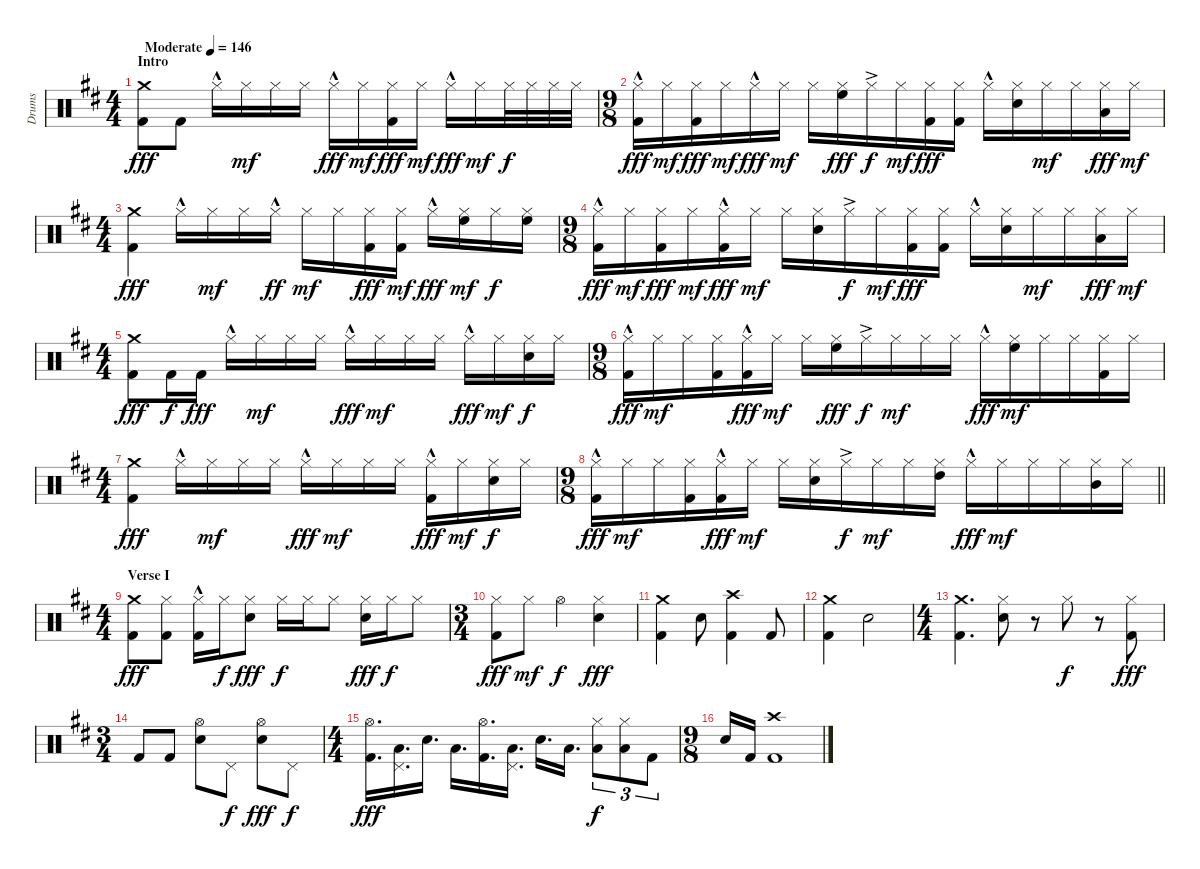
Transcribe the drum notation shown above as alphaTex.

\track ("Drums" "Drums") {instrument percussion}
\staff {score}
\articulation defaults
\ts (4 4)
\section ("" "Intro")
\tempo (146 "Moderate")
\clef neutral
\ks d
("Crash medium (hit)" "Kick (hit) 2").8{dy fff} "Kick (hit) 2".8 "Hi-Hat (closed)"{hac}.16 "Hi-Hat (closed)".16{dy mf} "Hi-Hat (closed)".16 "Hi-Hat (closed)".16 "Hi-Hat (closed)"{hac}.16{dy fff} "Hi-Hat (closed)".16{dy mf} ("Hi-Hat (closed)" "Kick (hit) 2").16{dy fff} "Hi-Hat (closed)".16{dy mf} "Hi-Hat (closed)"{hac}.16{dy fff} "Hi-Hat (closed)".16{dy mf} "Hi-Hat (closed)".32{dy f} "Hi-Hat (closed)".32 "Hi-Hat (closed)".32 "Hi-Hat (closed)".32 |
\ts (9 8)
("Hi-Hat (closed)"{hac} "Kick (hit) 2").16{dy fff} "Hi-Hat (closed)".16{dy mf} ("Hi-Hat (closed)" "Kick (hit) 2").16{dy fff} "Hi-Hat (closed)".16{dy mf} "Hi-Hat (closed)"{hac}.16{dy fff} "Hi-Hat (closed)".16{dy mf} "Hi-Hat (closed)".16 ("Hi-Hat (closed)" "High Floor Tom (hit)").16{dy fff} "Hi-Hat (closed)"{ac}.16{dy f} "Hi-Hat (closed)".16{dy mf} ("Hi-Hat (closed)" "Kick (hit) 2").16{dy fff} ("Hi-Hat (closed)" "Kick (hit) 2").16 "Hi-Hat (closed)"{hac}.16 ("Hi-Hat (closed)" "Snare (hit) 2").16 "Hi-Hat (closed)".16{dy mf} "Hi-Hat (closed)".16 ("Hi-Hat (closed)" "Low Floor Tom (hit)").16{dy fff} "Hi-Hat (closed)".16{dy mf} |
\ts (4 4)
("Crash medium (hit)" "Kick (hit) 2").4{dy fff} "Hi-Hat (closed)"{hac}.16 "Hi-Hat (closed)".16{dy mf} "Hi-Hat (closed)".16 "Hi-Hat (closed)"{hac}.16{dy ff} "Hi-Hat (closed)".16{dy mf} "Hi-Hat (closed)".16 ("Hi-Hat (closed)" "Kick (hit) 2").16{dy fff} ("Hi-Hat (closed)" "Kick (hit) 2").16{dy mf} "Hi-Hat (closed)"{hac}.16{dy fff} ("Hi-Hat (closed)" "High Floor Tom (hit)").16{dy mf} "Hi-Hat (closed)".16{dy f} ("Hi-Hat (closed)" "High Floor Tom (hit)").16 |
\ts (9 8)
("Hi-Hat (closed)"{hac} "Kick (hit) 2").16{dy fff} "Hi-Hat (closed)".16{dy mf} ("Hi-Hat (closed)" "Kick (hit) 2").16{dy fff} "Hi-Hat (closed)".16{dy mf} ("Hi-Hat (closed)"{hac} "Kick (hit) 2").16{dy fff} "Hi-Hat (closed)".16{dy mf} "Hi-Hat (closed)".16 ("Hi-Hat (closed)" "Snare (hit) 2").16 "Hi-Hat (closed)"{ac}.16{dy f} "Hi-Hat (closed)".16{dy mf} ("Hi-Hat (closed)" "Kick (hit) 2").16{dy fff} ("Hi-Hat (closed)" "Kick (hit) 2").16 "Hi-Hat (closed)"{hac}.16 ("Hi-Hat (closed)" "Snare (hit) 2").16 "Hi-Hat (closed)".16{dy mf} "Hi-Hat (closed)".16 ("Hi-Hat (closed)" "Low Floor Tom (hit)").16{dy fff} "Hi-Hat (closed)".16{dy mf} |
\ts (4 4)
("Crash medium (hit)" "Kick (hit) 2").8{dy fff} "Kick (hit) 2".16{dy f} "Kick (hit) 2".16{dy fff} "Hi-Hat (closed)"{hac}.16 "Hi-Hat (closed)".16{dy mf} "Hi-Hat (closed)".16 "Hi-Hat (closed)".16 "Hi-Hat (closed)"{hac}.16{dy fff} "Hi-Hat (closed)".16{dy mf} "Hi-Hat (closed)".16 "Hi-Hat (closed)".16 "Hi-Hat (closed)"{hac}.16{dy fff} "Hi-Hat (closed)".16{dy mf} ("Hi-Hat (closed)" "Snare (hit) 2").16{dy f} "Hi-Hat (closed)".16 |
\ts (9 8)
("Hi-Hat (closed)"{hac} "Kick (hit) 2").16{dy fff} "Hi-Hat (closed)".16{dy mf} "Hi-Hat (closed)".16 ("Hi-Hat (closed)" "Kick (hit) 2").16 ("Hi-Hat (closed)"{hac} "Kick (hit) 2").16{dy fff} "Hi-Hat (closed)".16{dy mf} "Hi-Hat (closed)".16 ("Hi-Hat (closed)" "High Floor Tom (hit)").16{dy fff} "Hi-Hat (closed)"{ac}.16{dy f} "Hi-Hat (closed)".16{dy mf} "Hi-Hat (closed)".16 "Hi-Hat (closed)".16 "Hi-Hat (closed)"{hac}.16{dy fff} ("Hi-Hat (closed)" "High Floor Tom (hit)").16{dy mf} "Hi-Hat (closed)".16 "Hi-Hat (closed)".16 ("Hi-Hat (closed)" "Kick (hit) 2").16 "Hi-Hat (closed)".16 |
\ts (4 4)
("Crash medium (hit)" "Kick (hit) 2").4{dy fff} "Hi-Hat (closed)"{hac}.16 "Hi-Hat (closed)".16{dy mf} "Hi-Hat (closed)".16 "Hi-Hat (closed)".16 "Hi-Hat (closed)"{hac}.16{dy fff} "Hi-Hat (closed)".16{dy mf} "Hi-Hat (closed)".16 "Hi-Hat (closed)".16 ("Hi-Hat (closed)"{hac} "Kick (hit) 2").16{dy fff} "Hi-Hat (closed)".16{dy mf} ("Hi-Hat (closed)" "Snare (hit) 2").16{dy f} "Hi-Hat (closed)".16 |
\ts (9 8)
\barLineRight lightlight
("Hi-Hat (closed)"{hac} "Kick (hit) 2").16{dy fff} "Hi-Hat (closed)".16{dy mf} "Hi-Hat (closed)".16 ("Hi-Hat (closed)" "Kick (hit) 2").16 ("Hi-Hat (closed)"{hac} "Kick (hit) 2").16{dy fff} "Hi-Hat (closed)".16{dy mf} "Hi-Hat (closed)".16 ("Hi-Hat (closed)" "Snare (hit) 2").16 "Hi-Hat (closed)"{ac}.16{dy f} "Hi-Hat (closed)".16{dy mf} "Hi-Hat (closed)".16 ("Hi-Hat (closed)" "High Tom (hit)").16 "Hi-Hat (closed)"{hac}.16{dy fff} "Hi-Hat (closed)".16{dy mf} "Hi-Hat (closed)".16 "Hi-Hat (closed)".16 ("Hi-Hat (closed)" "Mid Tom (hit)").16 "Hi-Hat (closed)".16 |
\ts (4 4)
\section ("" "Verse I")
("Crash medium (hit)" "Kick (hit) 2").8{dy fff} ("Hi-Hat (closed)" "Kick (hit) 2").8 ("Hi-Hat (closed)"{hac} "Kick (hit) 2").16 "Hi-Hat (closed)".16{dy f} ("Hi-Hat (closed)" "Snare (hit) 2").8{dy fff} "Hi-Hat (closed)".16{dy f} "Hi-Hat (closed)".16 "Hi-Hat (closed)".8 ("Hi-Hat (closed)" "Snare (hit) 2").16{dy fff} "Hi-Hat (closed)".16{dy f} "Hi-Hat (closed)".8 |
\ts (3 4)
("Hi-Hat (closed)" "Kick (hit) 2").8{dy fff} "Hi-Hat (closed)".8{dy mf} "Hi-Hat (open)".4{dy f} ("Hi-Hat (closed)" "Snare (hit) 2").4{dy fff} |
("Crash medium (hit)" "Kick (hit) 2").4 "Snare (hit) 2".8 ("Crash high (hit)" "Kick (hit) 2").4 "Kick (hit) 2".8 |
("Crash medium (hit)" "Kick (hit) 2").4 "Snare (hit) 2".2 |
\ts (4 4)
("Crash medium (hit)" "Kick (hit) 2").4{d} ("Hi-Hat (closed)" "Snare (hit) 2").8 r.8 "Hi-Hat (closed)".8{dy f} r.8 ("Hi-Hat (closed)" "Kick (hit) 2").8{dy fff} |
\ts (3 4)
"Kick (hit) 2".8 "Kick (hit) 2".8 ("Hi-Hat (open)" "Snare (hit) 2").8 "Pedal Hi-Hat (hit)".8{dy f} ("Hi-Hat (open)" "Snare (hit) 2").8{dy fff} "Pedal Hi-Hat (hit)".8{dy f} |
\ts (4 4)
("Hi-Hat (open)" "Kick (hit) 2").16{d dy fff} ("Pedal Hi-Hat (hit)" "Low Tom (hit)").16{d} "Snare (hit) 2".16{d} "Low Tom (hit)".16{d} ("Hi-Hat (open)" "Kick (hit) 2").16{d} ("Pedal Hi-Hat (hit)" "Low Tom (hit)").16{d} "Snare (hit) 2".16{d} "Low Tom (hit)".16{d} ("Hi-Hat (closed)" "Low Tom (hit)").8{tu (3 2) dy f} ("Hi-Hat (closed)" "Low Tom (hit)").8{tu (3 2)} "Kick (hit) 2".8{tu (3 2)} |
\ts (9 8)
"Snare (hit) 2".16 "Kick (hit) 2".16 ("Crash high (hit)" "Kick (hit) 2").1
